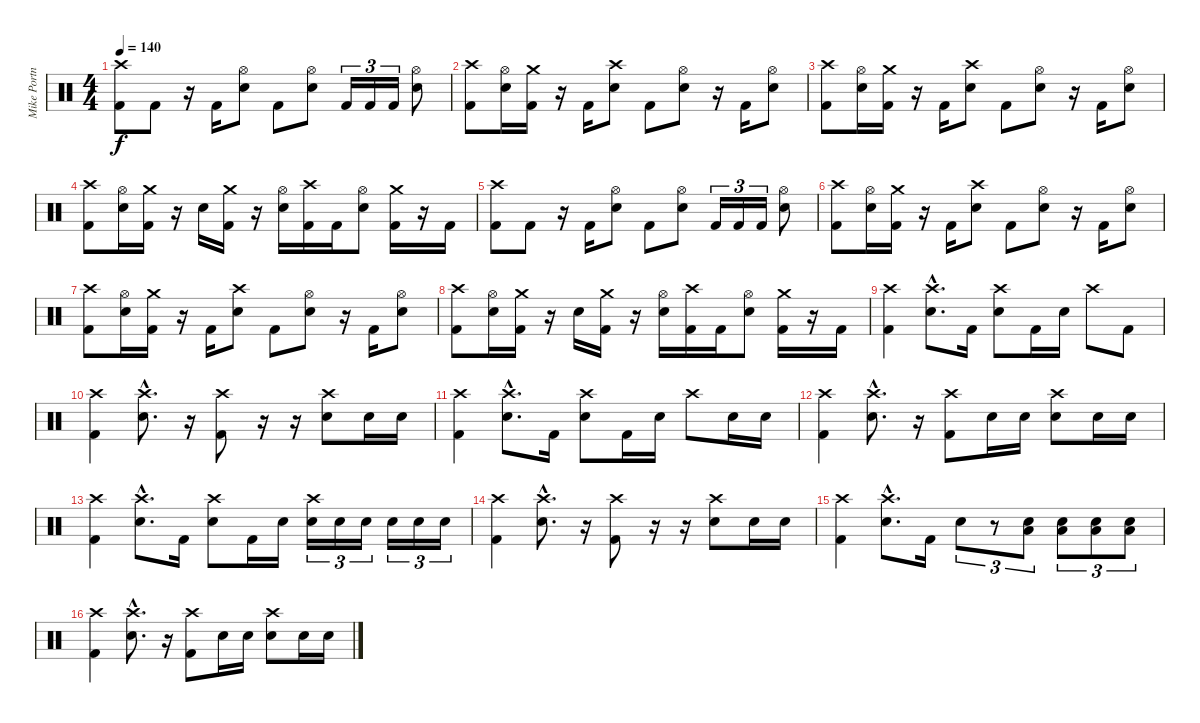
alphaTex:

\track ("Mike Portnoy" "Mike Portn") {instrument percussion}
\staff {score}
\articulation defaults
\ts (4 4)
\tempo 140
\clef neutral
\ks c
("Crash high (hit)" "Kick (hit) 2").8{dy f} "Kick (hit) 2".8 r.16 "Kick (hit) 2".16 ("Hi-Hat (open)" "Snare (hit) 2").8 "Kick (hit) 2".8 ("Hi-Hat (open)" "Snare (hit) 2").8 "Kick (hit) 2".16{tu (3 2)} "Kick (hit) 2".16{tu (3 2)} "Kick (hit) 2".16{tu (3 2)} ("Hi-Hat (open)" "Snare (hit) 2").8 |
("Crash high (hit)" "Kick (hit) 2").8 ("Hi-Hat (open)" "Snare (hit) 2").16 ("Crash medium (hit)" "Kick (hit) 2").16 r.16 "Kick (hit) 2".16 ("Crash high (hit)" "Snare (hit) 2").8 "Kick (hit) 2".8 ("Hi-Hat (open)" "Snare (hit) 2").8 r.16 "Kick (hit) 2".16 ("Hi-Hat (open)" "Snare (hit) 2").8 |
("Crash high (hit)" "Kick (hit) 2").8 ("Hi-Hat (open)" "Snare (hit) 2").16 ("Crash medium (hit)" "Kick (hit) 2").16 r.16 "Kick (hit) 2".16 ("Crash high (hit)" "Snare (hit) 2").8 "Kick (hit) 2".8 ("Hi-Hat (open)" "Snare (hit) 2").8 r.16 "Kick (hit) 2".16 ("Hi-Hat (open)" "Snare (hit) 2").8 |
("Crash high (hit)" "Kick (hit) 2").8 ("Hi-Hat (open)" "Snare (hit) 2").16 ("Crash medium (hit)" "Kick (hit) 2").16 r.16 "Snare (hit) 2".16 ("Crash medium (hit)" "Kick (hit) 2").16 r.16 ("Hi-Hat (open)" "Snare (hit) 2").16 ("Crash high (hit)" "Kick (hit) 2").16 "Kick (hit) 2".16 ("Hi-Hat (open)" "Snare (hit) 2").8 ("Crash medium (hit)" "Kick (hit) 2").16 r.16 "Kick (hit) 2".16 |
("Crash high (hit)" "Kick (hit) 2").8 "Kick (hit) 2".8 r.16 "Kick (hit) 2".16 ("Hi-Hat (open)" "Snare (hit) 2").8 "Kick (hit) 2".8 ("Hi-Hat (open)" "Snare (hit) 2").8 "Kick (hit) 2".16{tu (3 2)} "Kick (hit) 2".16{tu (3 2)} "Kick (hit) 2".16{tu (3 2)} ("Hi-Hat (open)" "Snare (hit) 2").8 |
("Crash high (hit)" "Kick (hit) 2").8 ("Hi-Hat (open)" "Snare (hit) 2").16 ("Crash medium (hit)" "Kick (hit) 2").16 r.16 "Kick (hit) 2".16 ("Crash high (hit)" "Snare (hit) 2").8 "Kick (hit) 2".8 ("Hi-Hat (open)" "Snare (hit) 2").8 r.16 "Kick (hit) 2".16 ("Hi-Hat (open)" "Snare (hit) 2").8 |
("Crash high (hit)" "Kick (hit) 2").8 ("Hi-Hat (open)" "Snare (hit) 2").16 ("Crash medium (hit)" "Kick (hit) 2").16 r.16 "Kick (hit) 2".16 ("Crash high (hit)" "Snare (hit) 2").8 "Kick (hit) 2".8 ("Hi-Hat (open)" "Snare (hit) 2").8 r.16 "Kick (hit) 2".16 ("Hi-Hat (open)" "Snare (hit) 2").8 |
("Crash high (hit)" "Kick (hit) 2").8 ("Hi-Hat (open)" "Snare (hit) 2").16 ("Crash medium (hit)" "Kick (hit) 2").16 r.16 "Snare (hit) 2".16 ("Crash medium (hit)" "Kick (hit) 2").16 r.16 ("Hi-Hat (open)" "Snare (hit) 2").16 ("Crash high (hit)" "Kick (hit) 2").16 "Kick (hit) 2".16 ("Hi-Hat (open)" "Snare (hit) 2").8 ("Crash medium (hit)" "Kick (hit) 2").16 r.16 "Kick (hit) 2".16 |
("Crash high (hit)" "Kick (hit) 2").4 ("Crash high (hit)"{hac} "Snare (hit) 2"{hac}).8{d} "Kick (hit) 2".16 ("Crash high (hit)" "Snare (hit) 2").8 "Kick (hit) 2".16 "Snare (hit) 2".16 "Crash high (hit)".8 "Kick (hit) 2".8 |
("Crash high (hit)" "Kick (hit) 2").4 ("Crash high (hit)"{hac} "Snare (hit) 2"{hac}).8{d} r.16 ("Crash high (hit)" "Kick (hit) 2").8 r.16 r.16 ("Crash high (hit)" "Snare (hit) 2").8 "Snare (hit) 2".16 "Snare (hit) 2".16 |
("Crash high (hit)" "Kick (hit) 2").4 ("Crash high (hit)"{hac} "Snare (hit) 2"{hac}).8{d} "Kick (hit) 2".16 ("Crash high (hit)" "Snare (hit) 2").8 "Kick (hit) 2".16 "Snare (hit) 2".16 "Crash high (hit)".8 "Snare (hit) 2".16 "Snare (hit) 2".16 |
("Crash high (hit)" "Kick (hit) 2").4 ("Crash high (hit)"{hac} "Snare (hit) 2"{hac}).8{d} r.16 ("Crash high (hit)" "Kick (hit) 2").8 "Snare (hit) 2".16 "Snare (hit) 2".16 ("Crash high (hit)" "Snare (hit) 2").8 "Snare (hit) 2".16 "Snare (hit) 2".16 |
("Crash high (hit)" "Kick (hit) 2").4 ("Crash high (hit)"{hac} "Snare (hit) 2"{hac}).8{d} "Kick (hit) 2".16 ("Crash high (hit)" "Snare (hit) 2").8 "Kick (hit) 2".16 "Snare (hit) 2".16 ("Crash high (hit)" "Snare (hit) 2").16{tu (3 2)} "Snare (hit) 2".16{tu (3 2)} "Snare (hit) 2".16{tu (3 2)} "Snare (hit) 2".16{tu (3 2)} "Snare (hit) 2".16{tu (3 2)} "Snare (hit) 2".16{tu (3 2)} |
("Crash high (hit)" "Kick (hit) 2").4 ("Crash high (hit)"{hac} "Snare (hit) 2"{hac}).8{d} r.16 ("Crash high (hit)" "Kick (hit) 2").8 r.16 r.16 ("Crash high (hit)" "Snare (hit) 2").8 "Snare (hit) 2".16 "Snare (hit) 2".16 |
("Crash high (hit)" "Kick (hit) 2").4 ("Crash high (hit)"{hac} "Snare (hit) 2"{hac}).8{d} "Kick (hit) 2".16 "Snare (hit) 2".8{tu (3 2)} r.8{tu (3 2)} ("Low Tom (hit)" "Snare (hit) 2").8{tu (3 2)} ("Low Tom (hit)" "Snare (hit) 2").8{tu (3 2)} ("Low Tom (hit)" "Snare (hit) 2").8{tu (3 2)} ("Low Tom (hit)" "Snare (hit) 2").8{tu (3 2)} |
("Crash high (hit)" "Kick (hit) 2").4 ("Crash high (hit)"{hac} "Snare (hit) 2"{hac}).8{d} r.16 ("Crash high (hit)" "Kick (hit) 2").8 "Snare (hit) 2".16 "Snare (hit) 2".16 ("Crash high (hit)" "Snare (hit) 2").8 "Snare (hit) 2".16 "Snare (hit) 2".16
